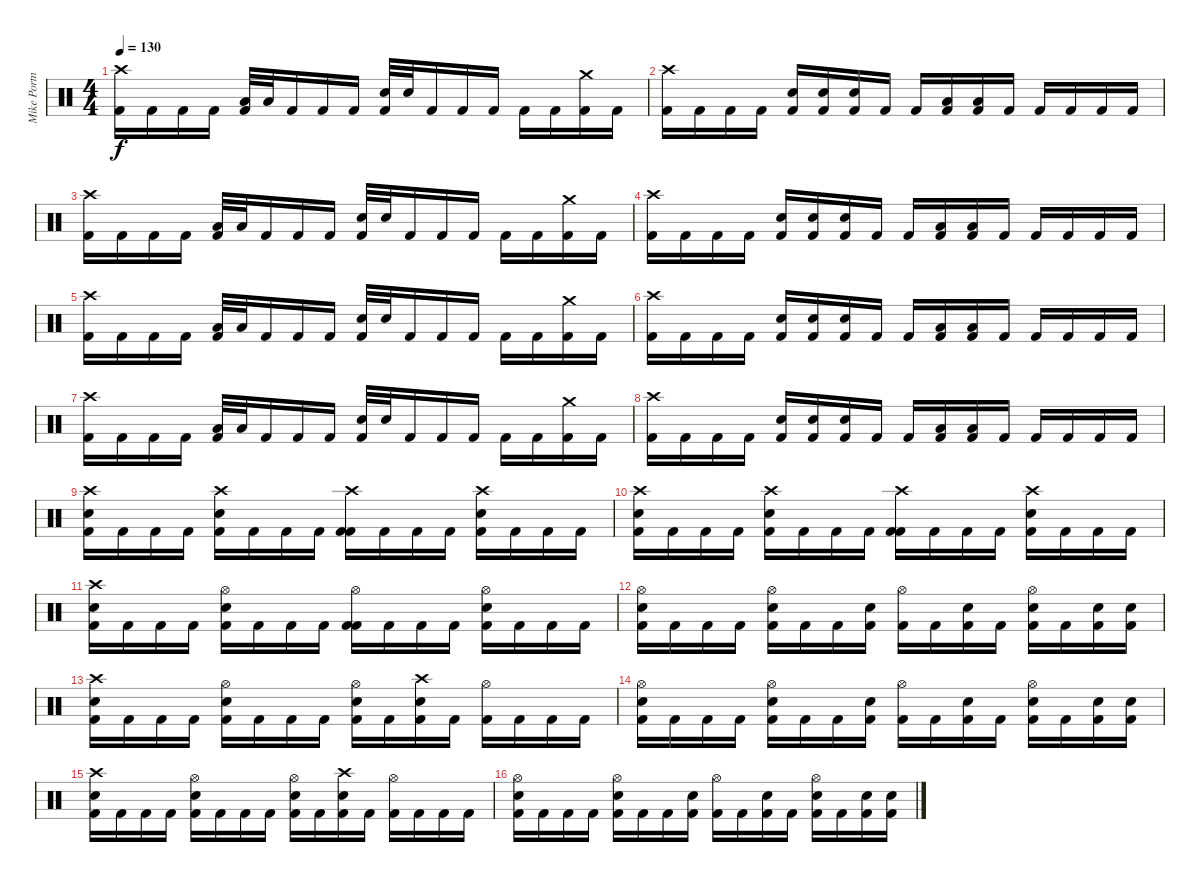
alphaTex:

\track ("Mike Portnoy" "Mike Portn") {instrument percussion}
\staff {score}
\articulation defaults
\ts (4 4)
\tempo 130
\clef neutral
\ks c
("Crash high (hit)" "Kick (hit) 2").16{dy f} "Kick (hit) 2".16 "Kick (hit) 2".16 "Kick (hit) 2".16 ("Low Tom (hit)" "Kick (hit) 2").32 "Low Tom (hit)".32 "Kick (hit) 2".16 "Kick (hit) 2".16 "Kick (hit) 2".16 ("Snare (hit) 2" "Kick (hit) 2").32 "Snare (hit) 2".32 "Kick (hit) 2".16 "Kick (hit) 2".16 "Kick (hit) 2".16 "Kick (hit) 2".16 "Kick (hit) 2".16 ("Crash medium (hit)" "Kick (hit) 2").16 "Kick (hit) 2".16 |
("Crash high (hit)" "Kick (hit) 2").16 "Kick (hit) 2".16 "Kick (hit) 2".16 "Kick (hit) 2".16 ("Snare (hit) 2" "Kick (hit) 2").16 ("Snare (hit) 2" "Kick (hit) 2").16 ("Snare (hit) 2" "Kick (hit) 2").16 "Kick (hit) 2".16 "Kick (hit) 2".16 ("Low Tom (hit)" "Kick (hit) 2").16 ("Low Tom (hit)" "Kick (hit) 2").16 "Kick (hit) 2".16 "Kick (hit) 2".16 "Kick (hit) 2".16 "Kick (hit) 2".16 "Kick (hit) 2".16 |
("Crash high (hit)" "Kick (hit) 2").16 "Kick (hit) 2".16 "Kick (hit) 2".16 "Kick (hit) 2".16 ("Low Tom (hit)" "Kick (hit) 2").32 "Low Tom (hit)".32 "Kick (hit) 2".16 "Kick (hit) 2".16 "Kick (hit) 2".16 ("Snare (hit) 2" "Kick (hit) 2").32 "Snare (hit) 2".32 "Kick (hit) 2".16 "Kick (hit) 2".16 "Kick (hit) 2".16 "Kick (hit) 2".16 "Kick (hit) 2".16 ("Crash medium (hit)" "Kick (hit) 2").16 "Kick (hit) 2".16 |
("Crash high (hit)" "Kick (hit) 2").16 "Kick (hit) 2".16 "Kick (hit) 2".16 "Kick (hit) 2".16 ("Snare (hit) 2" "Kick (hit) 2").16 ("Snare (hit) 2" "Kick (hit) 2").16 ("Snare (hit) 2" "Kick (hit) 2").16 "Kick (hit) 2".16 "Kick (hit) 2".16 ("Low Tom (hit)" "Kick (hit) 2").16 ("Low Tom (hit)" "Kick (hit) 2").16 "Kick (hit) 2".16 "Kick (hit) 2".16 "Kick (hit) 2".16 "Kick (hit) 2".16 "Kick (hit) 2".16 |
("Crash high (hit)" "Kick (hit) 2").16 "Kick (hit) 2".16 "Kick (hit) 2".16 "Kick (hit) 2".16 ("Low Tom (hit)" "Kick (hit) 2").32 "Low Tom (hit)".32 "Kick (hit) 2".16 "Kick (hit) 2".16 "Kick (hit) 2".16 ("Snare (hit) 2" "Kick (hit) 2").32 "Snare (hit) 2".32 "Kick (hit) 2".16 "Kick (hit) 2".16 "Kick (hit) 2".16 "Kick (hit) 2".16 "Kick (hit) 2".16 ("Crash medium (hit)" "Kick (hit) 2").16 "Kick (hit) 2".16 |
("Crash high (hit)" "Kick (hit) 2").16 "Kick (hit) 2".16 "Kick (hit) 2".16 "Kick (hit) 2".16 ("Snare (hit) 2" "Kick (hit) 2").16 ("Snare (hit) 2" "Kick (hit) 2").16 ("Snare (hit) 2" "Kick (hit) 2").16 "Kick (hit) 2".16 "Kick (hit) 2".16 ("Low Tom (hit)" "Kick (hit) 2").16 ("Low Tom (hit)" "Kick (hit) 2").16 "Kick (hit) 2".16 "Kick (hit) 2".16 "Kick (hit) 2".16 "Kick (hit) 2".16 "Kick (hit) 2".16 |
("Crash high (hit)" "Kick (hit) 2").16 "Kick (hit) 2".16 "Kick (hit) 2".16 "Kick (hit) 2".16 ("Low Tom (hit)" "Kick (hit) 2").32 "Low Tom (hit)".32 "Kick (hit) 2".16 "Kick (hit) 2".16 "Kick (hit) 2".16 ("Snare (hit) 2" "Kick (hit) 2").32 "Snare (hit) 2".32 "Kick (hit) 2".16 "Kick (hit) 2".16 "Kick (hit) 2".16 "Kick (hit) 2".16 "Kick (hit) 2".16 ("Crash medium (hit)" "Kick (hit) 2").16 "Kick (hit) 2".16 |
("Crash high (hit)" "Kick (hit) 2").16 "Kick (hit) 2".16 "Kick (hit) 2".16 "Kick (hit) 2".16 ("Snare (hit) 2" "Kick (hit) 2").16 ("Snare (hit) 2" "Kick (hit) 2").16 ("Snare (hit) 2" "Kick (hit) 2").16 "Kick (hit) 2".16 "Kick (hit) 2".16 ("Low Tom (hit)" "Kick (hit) 2").16 ("Low Tom (hit)" "Kick (hit) 2").16 "Kick (hit) 2".16 "Kick (hit) 2".16 "Kick (hit) 2".16 "Kick (hit) 2".16 "Kick (hit) 2".16 |
("Crash high (hit)" "Snare (hit) 2" "Kick (hit) 2").16 "Kick (hit) 2".16 "Kick (hit) 2".16 "Kick (hit) 2".16 ("Crash high (hit)" "Snare (hit) 2" "Kick (hit) 2").16 "Kick (hit) 2".16 "Kick (hit) 2".16 "Kick (hit) 2".16 ("Crash high (hit)" "Kick (hit) 2" "Kick (hit) 2").16 "Kick (hit) 2".16 "Kick (hit) 2".16 "Kick (hit) 2".16 ("Crash high (hit)" "Snare (hit) 2" "Kick (hit) 2").16 "Kick (hit) 2".16 "Kick (hit) 2".16 "Kick (hit) 2".16 |
("Crash high (hit)" "Snare (hit) 2" "Kick (hit) 2").16 "Kick (hit) 2".16 "Kick (hit) 2".16 "Kick (hit) 2".16 ("Crash high (hit)" "Snare (hit) 2" "Kick (hit) 2").16 "Kick (hit) 2".16 "Kick (hit) 2".16 "Kick (hit) 2".16 ("Crash high (hit)" "Kick (hit) 2" "Kick (hit) 2").16 "Kick (hit) 2".16 "Kick (hit) 2".16 "Kick (hit) 2".16 ("Crash high (hit)" "Snare (hit) 2" "Kick (hit) 2").16 "Kick (hit) 2".16 "Kick (hit) 2".16 "Kick (hit) 2".16 |
("Crash high (hit)" "Snare (hit) 2" "Kick (hit) 2").16 "Kick (hit) 2".16 "Kick (hit) 2".16 "Kick (hit) 2".16 ("Hi-Hat (open)" "Snare (hit) 2" "Kick (hit) 2").16 "Kick (hit) 2".16 "Kick (hit) 2".16 "Kick (hit) 2".16 ("Hi-Hat (open)" "Kick (hit) 2" "Kick (hit) 2").16 "Kick (hit) 2".16 "Kick (hit) 2".16 "Kick (hit) 2".16 ("Hi-Hat (open)" "Snare (hit) 2" "Kick (hit) 2").16 "Kick (hit) 2".16 "Kick (hit) 2".16 "Kick (hit) 2".16 |
("Hi-Hat (open)" "Snare (hit) 2" "Kick (hit) 2").16 "Kick (hit) 2".16 "Kick (hit) 2".16 "Kick (hit) 2".16 ("Hi-Hat (open)" "Snare (hit) 2" "Kick (hit) 2").16 "Kick (hit) 2".16 "Kick (hit) 2".16 ("Snare (hit) 2" "Kick (hit) 2").16 ("Hi-Hat (open)" "Kick (hit) 2").16 "Kick (hit) 2".16 ("Snare (hit) 2" "Kick (hit) 2").16 "Kick (hit) 2".16 ("Hi-Hat (open)" "Snare (hit) 2" "Kick (hit) 2").16 "Kick (hit) 2".16 ("Snare (hit) 2" "Kick (hit) 2").16 ("Snare (hit) 2" "Kick (hit) 2").16 |
("Crash high (hit)" "Snare (hit) 2" "Kick (hit) 2").16 "Kick (hit) 2".16 "Kick (hit) 2".16 "Kick (hit) 2".16 ("Hi-Hat (open)" "Snare (hit) 2" "Kick (hit) 2").16 "Kick (hit) 2".16 "Kick (hit) 2".16 "Kick (hit) 2".16 ("Hi-Hat (open)" "Snare (hit) 2" "Kick (hit) 2").16 "Kick (hit) 2".16 ("Crash high (hit)" "Snare (hit) 2" "Kick (hit) 2").16 "Kick (hit) 2".16 ("Hi-Hat (open)" "Kick (hit) 2").16 "Kick (hit) 2".16 "Kick (hit) 2".16 "Kick (hit) 2".16 |
("Hi-Hat (open)" "Snare (hit) 2" "Kick (hit) 2").16 "Kick (hit) 2".16 "Kick (hit) 2".16 "Kick (hit) 2".16 ("Hi-Hat (open)" "Snare (hit) 2" "Kick (hit) 2").16 "Kick (hit) 2".16 "Kick (hit) 2".16 ("Snare (hit) 2" "Kick (hit) 2").16 ("Hi-Hat (open)" "Kick (hit) 2").16 "Kick (hit) 2".16 ("Snare (hit) 2" "Kick (hit) 2").16 "Kick (hit) 2".16 ("Hi-Hat (open)" "Snare (hit) 2" "Kick (hit) 2").16 "Kick (hit) 2".16 ("Snare (hit) 2" "Kick (hit) 2").16 ("Snare (hit) 2" "Kick (hit) 2").16 |
("Crash high (hit)" "Snare (hit) 2" "Kick (hit) 2").16 "Kick (hit) 2".16 "Kick (hit) 2".16 "Kick (hit) 2".16 ("Hi-Hat (open)" "Snare (hit) 2" "Kick (hit) 2").16 "Kick (hit) 2".16 "Kick (hit) 2".16 "Kick (hit) 2".16 ("Hi-Hat (open)" "Snare (hit) 2" "Kick (hit) 2").16 "Kick (hit) 2".16 ("Crash high (hit)" "Snare (hit) 2" "Kick (hit) 2").16 "Kick (hit) 2".16 ("Hi-Hat (open)" "Kick (hit) 2").16 "Kick (hit) 2".16 "Kick (hit) 2".16 "Kick (hit) 2".16 |
("Hi-Hat (open)" "Snare (hit) 2" "Kick (hit) 2").16 "Kick (hit) 2".16 "Kick (hit) 2".16 "Kick (hit) 2".16 ("Hi-Hat (open)" "Snare (hit) 2" "Kick (hit) 2").16 "Kick (hit) 2".16 "Kick (hit) 2".16 ("Snare (hit) 2" "Kick (hit) 2").16 ("Hi-Hat (open)" "Kick (hit) 2").16 "Kick (hit) 2".16 ("Snare (hit) 2" "Kick (hit) 2").16 "Kick (hit) 2".16 ("Hi-Hat (open)" "Snare (hit) 2" "Kick (hit) 2").16 "Kick (hit) 2".16 ("Snare (hit) 2" "Kick (hit) 2").16 ("Snare (hit) 2" "Kick (hit) 2").16
